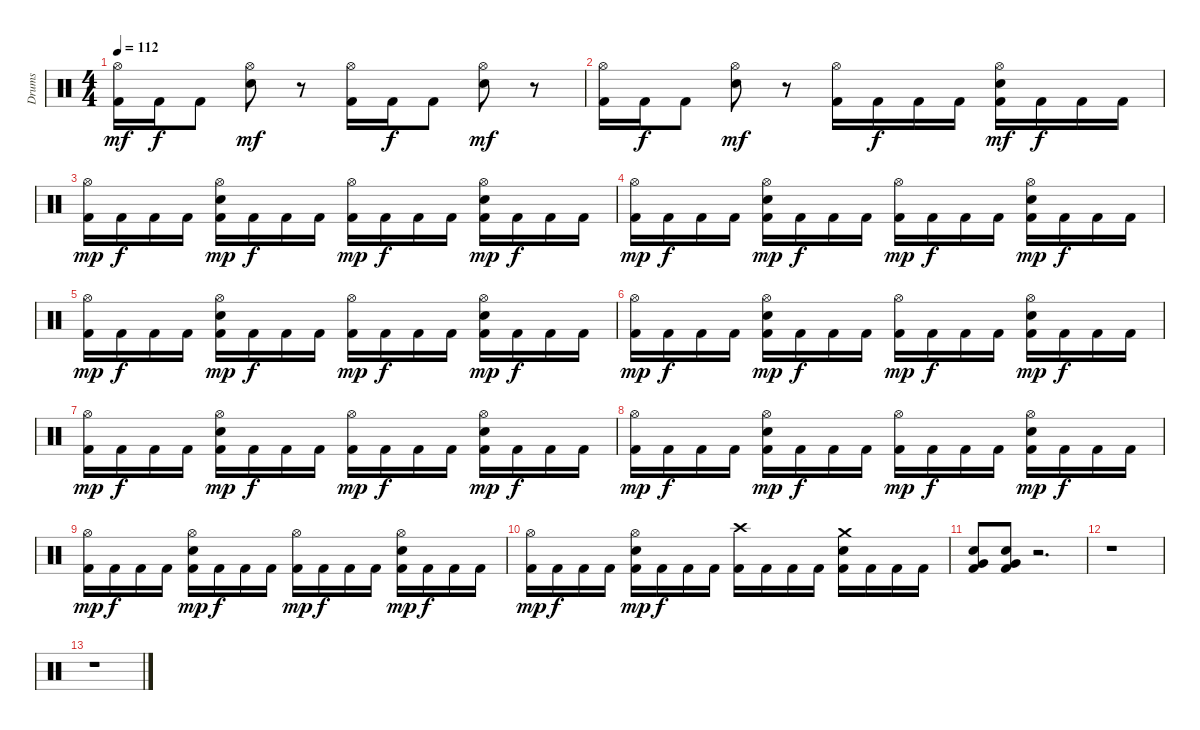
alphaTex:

\track ("Drums" "Drums") {instrument percussion}
\staff {score}
\articulation defaults
\ts (4 4)
\tempo 112
\clef neutral
\ks c
("Hi-Hat (open)" "Kick (hit) 2").16{dy mf} "Kick (hit) 2".16{dy f} "Kick (hit) 2".8 ("Hi-Hat (open)" "Electric Snare (hit)").8{dy mf} r.8 ("Hi-Hat (open)" "Kick (hit) 2").16 "Kick (hit) 2".16{dy f} "Kick (hit) 2".8 ("Hi-Hat (open)" "Electric Snare (hit)").8{dy mf} r.8 |
("Hi-Hat (open)" "Kick (hit) 2").16 "Kick (hit) 2".16{dy f} "Kick (hit) 2".8 ("Hi-Hat (open)" "Electric Snare (hit)").8{dy mf} r.8 ("Hi-Hat (open)" "Kick (hit) 2").16 "Kick (hit) 2".16{dy f} "Kick (hit) 2".16 "Kick (hit) 2".16 ("Hi-Hat (open)" "Electric Snare (hit)" "Kick (hit) 2").16{dy mf} "Kick (hit) 2".16{dy f} "Kick (hit) 2".16 "Kick (hit) 2".16 |
("Hi-Hat (open)" "Kick (hit) 2").16{dy mp} "Kick (hit) 2".16{dy f} "Kick (hit) 2".16 "Kick (hit) 2".16 ("Hi-Hat (open)" "Electric Snare (hit)" "Kick (hit) 2").16{dy mp} "Kick (hit) 2".16{dy f} "Kick (hit) 2".16 "Kick (hit) 2".16 ("Hi-Hat (open)" "Kick (hit) 2").16{dy mp} "Kick (hit) 2".16{dy f} "Kick (hit) 2".16 "Kick (hit) 2".16 ("Hi-Hat (open)" "Electric Snare (hit)" "Kick (hit) 2").16{dy mp} "Kick (hit) 2".16{dy f} "Kick (hit) 2".16 "Kick (hit) 2".16 |
("Hi-Hat (open)" "Kick (hit) 2").16{dy mp} "Kick (hit) 2".16{dy f} "Kick (hit) 2".16 "Kick (hit) 2".16 ("Hi-Hat (open)" "Electric Snare (hit)" "Kick (hit) 2").16{dy mp} "Kick (hit) 2".16{dy f} "Kick (hit) 2".16 "Kick (hit) 2".16 ("Hi-Hat (open)" "Kick (hit) 2").16{dy mp} "Kick (hit) 2".16{dy f} "Kick (hit) 2".16 "Kick (hit) 2".16 ("Hi-Hat (open)" "Electric Snare (hit)" "Kick (hit) 2").16{dy mp} "Kick (hit) 2".16{dy f} "Kick (hit) 2".16 "Kick (hit) 2".16 |
("Hi-Hat (open)" "Kick (hit) 2").16{dy mp} "Kick (hit) 2".16{dy f} "Kick (hit) 2".16 "Kick (hit) 2".16 ("Hi-Hat (open)" "Electric Snare (hit)" "Kick (hit) 2").16{dy mp} "Kick (hit) 2".16{dy f} "Kick (hit) 2".16 "Kick (hit) 2".16 ("Hi-Hat (open)" "Kick (hit) 2").16{dy mp} "Kick (hit) 2".16{dy f} "Kick (hit) 2".16 "Kick (hit) 2".16 ("Hi-Hat (open)" "Electric Snare (hit)" "Kick (hit) 2").16{dy mp} "Kick (hit) 2".16{dy f} "Kick (hit) 2".16 "Kick (hit) 2".16 |
("Hi-Hat (open)" "Kick (hit) 2").16{dy mp} "Kick (hit) 2".16{dy f} "Kick (hit) 2".16 "Kick (hit) 2".16 ("Hi-Hat (open)" "Electric Snare (hit)" "Kick (hit) 2").16{dy mp} "Kick (hit) 2".16{dy f} "Kick (hit) 2".16 "Kick (hit) 2".16 ("Hi-Hat (open)" "Kick (hit) 2").16{dy mp} "Kick (hit) 2".16{dy f} "Kick (hit) 2".16 "Kick (hit) 2".16 ("Hi-Hat (open)" "Electric Snare (hit)" "Kick (hit) 2").16{dy mp} "Kick (hit) 2".16{dy f} "Kick (hit) 2".16 "Kick (hit) 2".16 |
("Hi-Hat (open)" "Kick (hit) 2").16{dy mp} "Kick (hit) 2".16{dy f} "Kick (hit) 2".16 "Kick (hit) 2".16 ("Hi-Hat (open)" "Electric Snare (hit)" "Kick (hit) 2").16{dy mp} "Kick (hit) 2".16{dy f} "Kick (hit) 2".16 "Kick (hit) 2".16 ("Hi-Hat (open)" "Kick (hit) 2").16{dy mp} "Kick (hit) 2".16{dy f} "Kick (hit) 2".16 "Kick (hit) 2".16 ("Hi-Hat (open)" "Electric Snare (hit)" "Kick (hit) 2").16{dy mp} "Kick (hit) 2".16{dy f} "Kick (hit) 2".16 "Kick (hit) 2".16 |
("Hi-Hat (open)" "Kick (hit) 2").16{dy mp} "Kick (hit) 2".16{dy f} "Kick (hit) 2".16 "Kick (hit) 2".16 ("Hi-Hat (open)" "Electric Snare (hit)" "Kick (hit) 2").16{dy mp} "Kick (hit) 2".16{dy f} "Kick (hit) 2".16 "Kick (hit) 2".16 ("Hi-Hat (open)" "Kick (hit) 2").16{dy mp} "Kick (hit) 2".16{dy f} "Kick (hit) 2".16 "Kick (hit) 2".16 ("Hi-Hat (open)" "Electric Snare (hit)" "Kick (hit) 2").16{dy mp} "Kick (hit) 2".16{dy f} "Kick (hit) 2".16 "Kick (hit) 2".16 |
("Hi-Hat (open)" "Kick (hit) 2").16{dy mp} "Kick (hit) 2".16{dy f} "Kick (hit) 2".16 "Kick (hit) 2".16 ("Hi-Hat (open)" "Electric Snare (hit)" "Kick (hit) 2").16{dy mp} "Kick (hit) 2".16{dy f} "Kick (hit) 2".16 "Kick (hit) 2".16 ("Hi-Hat (open)" "Kick (hit) 2").16{dy mp} "Kick (hit) 2".16{dy f} "Kick (hit) 2".16 "Kick (hit) 2".16 ("Hi-Hat (open)" "Electric Snare (hit)" "Kick (hit) 2").16{dy mp} "Kick (hit) 2".16{dy f} "Kick (hit) 2".16 "Kick (hit) 2".16 |
("Hi-Hat (open)" "Kick (hit) 2").16{dy mp} "Kick (hit) 2".16{dy f} "Kick (hit) 2".16 "Kick (hit) 2".16 ("Hi-Hat (open)" "Electric Snare (hit)" "Kick (hit) 2").16{dy mp} "Kick (hit) 2".16{dy f} "Kick (hit) 2".16 "Kick (hit) 2".16 ("Crash high (hit)" "Kick (hit) 2").16 "Kick (hit) 2".16 "Kick (hit) 2".16 "Kick (hit) 2".16 ("Crash medium (hit)" "Electric Snare (hit)" "Kick (hit) 2").16 "Kick (hit) 2".16 "Kick (hit) 2".16 "Kick (hit) 2".16 |
("Very Low Tom (hit)" "Electric Snare (hit)" "Kick (hit) 2").8 ("Very Low Tom (hit)" "Electric Snare (hit)" "Kick (hit) 2").8 r.2{d} |
r.1 |
r.1
